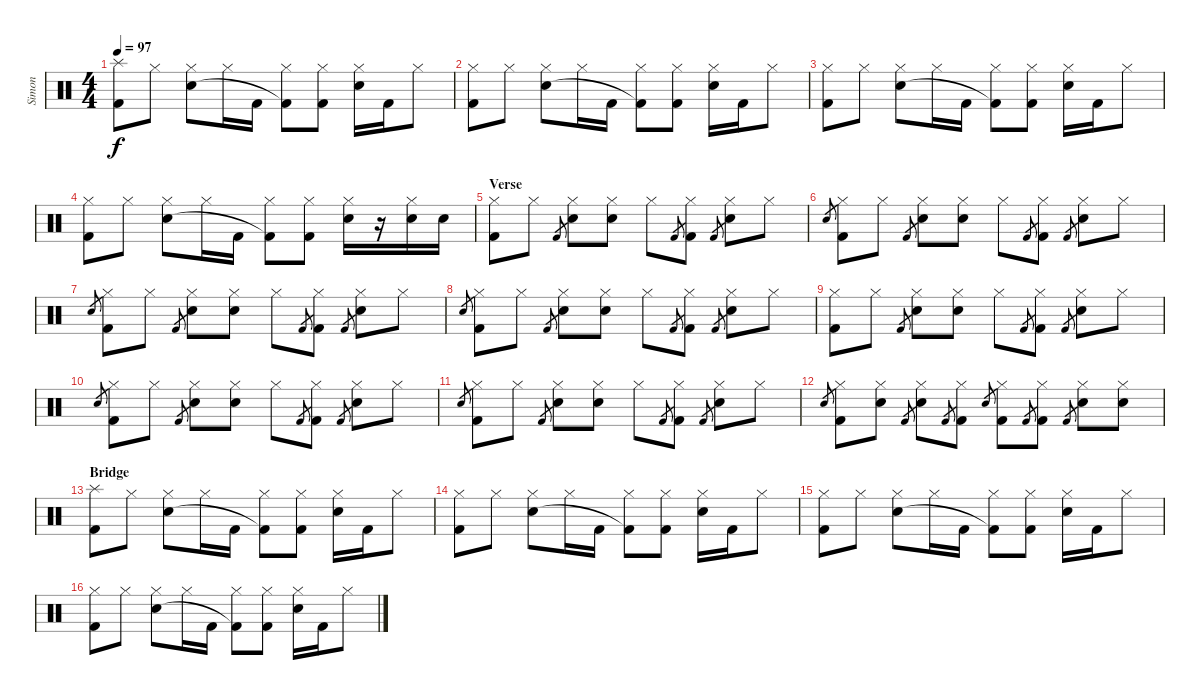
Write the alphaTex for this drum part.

\track ("Simon" "Simon") {instrument percussion}
\staff {score}
\articulation defaults
\ts (4 4)
\tempo 97
\clef neutral
\ks c
("Splash (hit)" "Kick (hit) 2").8{dy f} "Hi-Hat (closed)".8 ("Hi-Hat (closed)" "Electric Snare (hit)").8 "Hi-Hat (closed)".16 "Kick (hit) 2".16 ("Hi-Hat (closed)" "Kick (hit) 2"{t}).8 ("Hi-Hat (closed)" "Kick (hit) 2").8 ("Hi-Hat (closed)" "Electric Snare (hit)").16 "Kick (hit) 2".16 "Hi-Hat (closed)".8 |
("Hi-Hat (closed)" "Kick (hit) 2").8 "Hi-Hat (closed)".8 ("Hi-Hat (closed)" "Electric Snare (hit)").8 "Hi-Hat (closed)".16 "Kick (hit) 2".16 ("Hi-Hat (closed)" "Kick (hit) 2"{t}).8 ("Hi-Hat (closed)" "Kick (hit) 2").8 ("Hi-Hat (closed)" "Electric Snare (hit)").16 "Kick (hit) 2".16 "Hi-Hat (closed)".8 |
("Hi-Hat (closed)" "Kick (hit) 2").8 "Hi-Hat (closed)".8 ("Hi-Hat (closed)" "Electric Snare (hit)").8 "Hi-Hat (closed)".16 "Kick (hit) 2".16 ("Hi-Hat (closed)" "Kick (hit) 2"{t}).8 ("Hi-Hat (closed)" "Kick (hit) 2").8 ("Hi-Hat (closed)" "Electric Snare (hit)").16 "Kick (hit) 2".16 "Hi-Hat (closed)".8 |
("Hi-Hat (closed)" "Kick (hit) 2").8 "Hi-Hat (closed)".8 ("Hi-Hat (closed)" "Electric Snare (hit)").8 "Hi-Hat (closed)".16 "Kick (hit) 2".16 ("Hi-Hat (closed)" "Kick (hit) 2"{t}).8 ("Hi-Hat (closed)" "Kick (hit) 2").8 ("Hi-Hat (closed)" "Electric Snare (hit)").16 r.16 ("Hi-Hat (closed)" "Electric Snare (hit)").16 "Electric Snare (hit)".16 |
\section ("" "Verse")
("Hi-Hat (closed)" "Kick (hit) 2").8 "Hi-Hat (closed)".8 "Kick (hit) 2".8{gr} ("Hi-Hat (closed)" "Electric Snare (hit)").8 ("Hi-Hat (closed)" "Electric Snare (hit)").8 "Hi-Hat (closed)".8 "Kick (hit) 2".8{gr} ("Hi-Hat (closed)" "Kick (hit) 2").8 "Kick (hit) 2".8{gr} ("Hi-Hat (closed)" "Electric Snare (hit)").8 "Hi-Hat (closed)".8 |
"Electric Snare (hit)".8{gr} ("Hi-Hat (closed)" "Kick (hit) 2").8 "Hi-Hat (closed)".8 "Kick (hit) 2".8{gr} ("Hi-Hat (closed)" "Electric Snare (hit)").8 ("Hi-Hat (closed)" "Electric Snare (hit)").8 "Hi-Hat (closed)".8 "Kick (hit) 2".8{gr} ("Hi-Hat (closed)" "Kick (hit) 2").8 "Kick (hit) 2".8{gr} ("Hi-Hat (closed)" "Electric Snare (hit)").8 "Hi-Hat (closed)".8 |
"Electric Snare (hit)".8{gr} ("Hi-Hat (closed)" "Kick (hit) 2").8 "Hi-Hat (closed)".8 "Kick (hit) 2".8{gr} ("Hi-Hat (closed)" "Electric Snare (hit)").8 ("Hi-Hat (closed)" "Electric Snare (hit)").8 "Hi-Hat (closed)".8 "Kick (hit) 2".8{gr} ("Hi-Hat (closed)" "Kick (hit) 2").8 "Kick (hit) 2".8{gr} ("Hi-Hat (closed)" "Electric Snare (hit)").8 "Hi-Hat (closed)".8 |
"Electric Snare (hit)".8{gr} ("Hi-Hat (closed)" "Kick (hit) 2").8 "Hi-Hat (closed)".8 "Kick (hit) 2".8{gr} ("Hi-Hat (closed)" "Electric Snare (hit)").8 ("Hi-Hat (closed)" "Electric Snare (hit)").8 "Hi-Hat (closed)".8 "Kick (hit) 2".8{gr} ("Hi-Hat (closed)" "Kick (hit) 2").8 "Kick (hit) 2".8{gr} ("Hi-Hat (closed)" "Electric Snare (hit)").8 "Hi-Hat (closed)".8 |
("Hi-Hat (closed)" "Kick (hit) 2").8 "Hi-Hat (closed)".8 "Kick (hit) 2".8{gr} ("Hi-Hat (closed)" "Electric Snare (hit)").8 ("Hi-Hat (closed)" "Electric Snare (hit)").8 "Hi-Hat (closed)".8 "Kick (hit) 2".8{gr} ("Hi-Hat (closed)" "Kick (hit) 2").8 "Kick (hit) 2".8{gr} ("Hi-Hat (closed)" "Electric Snare (hit)").8 "Hi-Hat (closed)".8 |
"Electric Snare (hit)".8{gr} ("Hi-Hat (closed)" "Kick (hit) 2").8 "Hi-Hat (closed)".8 "Kick (hit) 2".8{gr} ("Hi-Hat (closed)" "Electric Snare (hit)").8 ("Hi-Hat (closed)" "Electric Snare (hit)").8 "Hi-Hat (closed)".8 "Kick (hit) 2".8{gr} ("Hi-Hat (closed)" "Kick (hit) 2").8 "Kick (hit) 2".8{gr} ("Hi-Hat (closed)" "Electric Snare (hit)").8 "Hi-Hat (closed)".8 |
"Electric Snare (hit)".8{gr} ("Hi-Hat (closed)" "Kick (hit) 2").8 "Hi-Hat (closed)".8 "Kick (hit) 2".8{gr} ("Hi-Hat (closed)" "Electric Snare (hit)").8 ("Hi-Hat (closed)" "Electric Snare (hit)").8 "Hi-Hat (closed)".8 "Kick (hit) 2".8{gr} ("Hi-Hat (closed)" "Kick (hit) 2").8 "Kick (hit) 2".8{gr} ("Hi-Hat (closed)" "Electric Snare (hit)").8 "Hi-Hat (closed)".8 |
"Electric Snare (hit)".8{gr} ("Hi-Hat (closed)" "Kick (hit) 2").8 ("Hi-Hat (closed)" "Electric Snare (hit)").8 "Kick (hit) 2".8{gr} ("Hi-Hat (closed)" "Electric Snare (hit)").8 "Kick (hit) 2".8{gr} ("Hi-Hat (closed)" "Kick (hit) 2").8 "Electric Snare (hit)".8{gr} ("Hi-Hat (closed)" "Kick (hit) 2").8 "Kick (hit) 2".8{gr} ("Hi-Hat (closed)" "Kick (hit) 2").8 "Kick (hit) 2".8{gr} ("Hi-Hat (closed)" "Electric Snare (hit)").8 ("Hi-Hat (closed)" "Electric Snare (hit)").8 |
\section ("" "Bridge")
("Splash (hit)" "Kick (hit) 2").8 "Hi-Hat (closed)".8 ("Hi-Hat (closed)" "Electric Snare (hit)").8 "Hi-Hat (closed)".16 "Kick (hit) 2".16 ("Hi-Hat (closed)" "Kick (hit) 2"{t}).8 ("Hi-Hat (closed)" "Kick (hit) 2").8 ("Hi-Hat (closed)" "Electric Snare (hit)").16 "Kick (hit) 2".16 "Hi-Hat (closed)".8 |
("Hi-Hat (closed)" "Kick (hit) 2").8 "Hi-Hat (closed)".8 ("Hi-Hat (closed)" "Electric Snare (hit)").8 "Hi-Hat (closed)".16 "Kick (hit) 2".16 ("Hi-Hat (closed)" "Kick (hit) 2"{t}).8 ("Hi-Hat (closed)" "Kick (hit) 2").8 ("Hi-Hat (closed)" "Electric Snare (hit)").16 "Kick (hit) 2".16 "Hi-Hat (closed)".8 |
("Hi-Hat (closed)" "Kick (hit) 2").8 "Hi-Hat (closed)".8 ("Hi-Hat (closed)" "Electric Snare (hit)").8 "Hi-Hat (closed)".16 "Kick (hit) 2".16 ("Hi-Hat (closed)" "Kick (hit) 2"{t}).8 ("Hi-Hat (closed)" "Kick (hit) 2").8 ("Hi-Hat (closed)" "Electric Snare (hit)").16 "Kick (hit) 2".16 "Hi-Hat (closed)".8 |
("Hi-Hat (closed)" "Kick (hit) 2").8 "Hi-Hat (closed)".8 ("Hi-Hat (closed)" "Electric Snare (hit)").8 "Hi-Hat (closed)".16 "Kick (hit) 2".16 ("Hi-Hat (closed)" "Kick (hit) 2"{t}).8 ("Hi-Hat (closed)" "Kick (hit) 2").8 ("Hi-Hat (closed)" "Electric Snare (hit)").16 "Kick (hit) 2".16 "Hi-Hat (closed)".8
